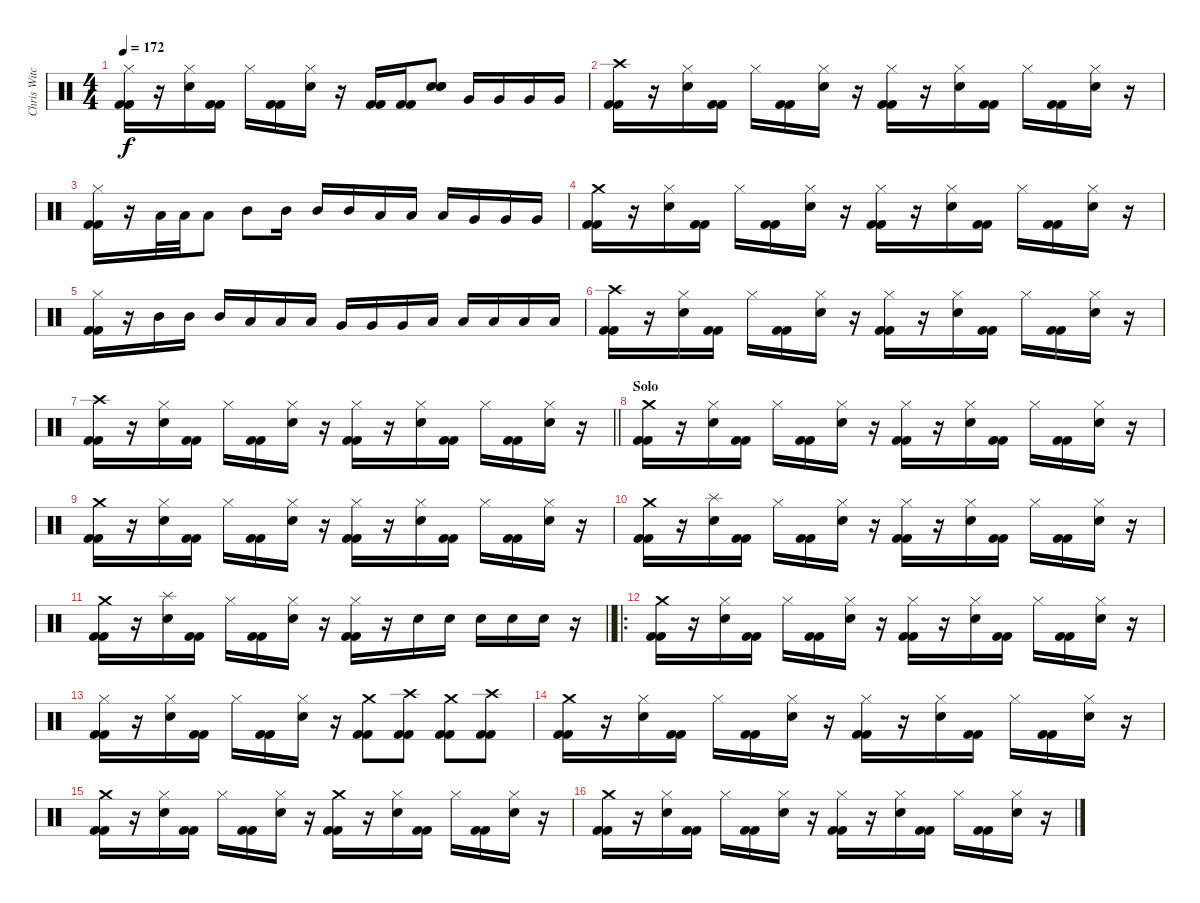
\track ("Chris Witchhunter" "Chris Witc") {instrument percussion}
\staff {score}
\articulation defaults
\ts (4 4)
\tempo 172
\clef neutral
\ks c
("Kick (hit) 2" "Kick (hit) 2" "Hi-Hat (closed)").16{dy f} r.16 ("Snare (hit) 2" "Hi-Hat (closed)").16 ("Kick (hit) 2" "Kick (hit) 2").16 "Hi-Hat (closed)".16 ("Kick (hit) 2" "Kick (hit) 2").16 ("Snare (hit) 2" "Hi-Hat (closed)").16 r.16 ("Kick (hit) 2" "Kick (hit) 2").16 ("Kick (hit) 2" "Kick (hit) 2").16 ("Snare (hit) 2" "Snare (hit) 2" "Snare (hit) 2").8 "Very Low Tom (hit)".16 "Very Low Tom (hit)".16 "Very Low Tom (hit)".16 "Very Low Tom (hit)".16 |
("Kick (hit) 2" "Kick (hit) 2" "Crash high (hit)").16 r.16 ("Snare (hit) 2" "Hi-Hat (closed)").16 ("Kick (hit) 2" "Kick (hit) 2").16 "Hi-Hat (closed)".16 ("Kick (hit) 2" "Kick (hit) 2").16 ("Snare (hit) 2" "Hi-Hat (closed)").16 r.16 ("Kick (hit) 2" "Kick (hit) 2" "Hi-Hat (closed)").16 r.16 ("Snare (hit) 2" "Hi-Hat (closed)").16 ("Kick (hit) 2" "Kick (hit) 2").16 "Hi-Hat (closed)".16 ("Kick (hit) 2" "Kick (hit) 2").16 ("Snare (hit) 2" "Hi-Hat (closed)").16 r.16 |
("Kick (hit) 2" "Kick (hit) 2" "Hi-Hat (closed)").16 r.16 "Low Tom (hit)".32 "Low Tom (hit)".32 "Low Tom (hit)".8 "Mid Tom (hit)".8 "Mid Tom (hit)".16 "Mid Tom (hit)".16 "Mid Tom (hit)".16 "Low Tom (hit)".16 "Low Tom (hit)".16 "Low Tom (hit)".16 "Very Low Tom (hit)".16 "Very Low Tom (hit)".16 "Very Low Tom (hit)".16 |
("Kick (hit) 2" "Kick (hit) 2" "Crash medium (hit)").16 r.16 ("Snare (hit) 2" "Hi-Hat (closed)").16 ("Kick (hit) 2" "Kick (hit) 2").16 "Hi-Hat (closed)".16 ("Kick (hit) 2" "Kick (hit) 2").16 ("Snare (hit) 2" "Hi-Hat (closed)").16 r.16 ("Kick (hit) 2" "Kick (hit) 2" "Hi-Hat (closed)").16 r.16 ("Snare (hit) 2" "Hi-Hat (closed)").16 ("Kick (hit) 2" "Kick (hit) 2").16 "Hi-Hat (closed)".16 ("Kick (hit) 2" "Kick (hit) 2").16 ("Snare (hit) 2" "Hi-Hat (closed)").16 r.16 |
("Kick (hit) 2" "Kick (hit) 2" "Hi-Hat (closed)").16 r.16 "Mid Tom (hit)".16 "Mid Tom (hit)".16 "Mid Tom (hit)".16 "Low Tom (hit)".16 "Low Tom (hit)".16 "Low Tom (hit)".16 "Very Low Tom (hit)".16 "Very Low Tom (hit)".16 "Very Low Tom (hit)".16 "Low Floor Tom (hit)".16 "Low Floor Tom (hit)".16 "Low Floor Tom (hit)".16 "Low Floor Tom (hit)".16 "Low Floor Tom (hit)".16 |
("Kick (hit) 2" "Kick (hit) 2" "Crash high (hit)").16 r.16 ("Snare (hit) 2" "Hi-Hat (closed)").16 ("Kick (hit) 2" "Kick (hit) 2").16 "Hi-Hat (closed)".16 ("Kick (hit) 2" "Kick (hit) 2").16 ("Snare (hit) 2" "Hi-Hat (closed)").16 r.16 ("Kick (hit) 2" "Kick (hit) 2" "Hi-Hat (closed)").16 r.16 ("Snare (hit) 2" "Hi-Hat (closed)").16 ("Kick (hit) 2" "Kick (hit) 2").16 "Hi-Hat (closed)".16 ("Kick (hit) 2" "Kick (hit) 2").16 ("Snare (hit) 2" "Hi-Hat (closed)").16 r.16 |
\barLineRight lightlight
("Kick (hit) 2" "Kick (hit) 2" "Crash high (hit)").16 r.16 ("Snare (hit) 2" "Hi-Hat (closed)").16 ("Kick (hit) 2" "Kick (hit) 2").16 "Hi-Hat (closed)".16 ("Kick (hit) 2" "Kick (hit) 2").16 ("Snare (hit) 2" "Hi-Hat (closed)").16 r.16 ("Kick (hit) 2" "Kick (hit) 2" "Hi-Hat (closed)").16 r.16 ("Snare (hit) 2" "Hi-Hat (closed)").16 ("Kick (hit) 2" "Kick (hit) 2").16 "Hi-Hat (closed)".16 ("Kick (hit) 2" "Kick (hit) 2").16 ("Snare (hit) 2" "Hi-Hat (closed)").16 r.16 |
\section ("" "Solo")
("Kick (hit) 2" "Kick (hit) 2" "Crash medium (hit)").16 r.16 ("Snare (hit) 2" "Hi-Hat (closed)").16 ("Kick (hit) 2" "Kick (hit) 2").16 "Hi-Hat (closed)".16 ("Kick (hit) 2" "Kick (hit) 2").16 ("Snare (hit) 2" "Hi-Hat (closed)").16 r.16 ("Kick (hit) 2" "Kick (hit) 2" "Hi-Hat (closed)").16 r.16 ("Snare (hit) 2" "Hi-Hat (closed)").16 ("Kick (hit) 2" "Kick (hit) 2").16 "Hi-Hat (closed)".16 ("Kick (hit) 2" "Kick (hit) 2").16 ("Snare (hit) 2" "Hi-Hat (closed)").16 r.16 |
("Kick (hit) 2" "Kick (hit) 2" "Crash medium (hit)").16 r.16 ("Snare (hit) 2" "Hi-Hat (closed)").16 ("Kick (hit) 2" "Kick (hit) 2").16 "Hi-Hat (closed)".16 ("Kick (hit) 2" "Kick (hit) 2").16 ("Snare (hit) 2" "Hi-Hat (closed)").16 r.16 ("Kick (hit) 2" "Kick (hit) 2" "Hi-Hat (closed)").16 r.16 ("Snare (hit) 2" "Hi-Hat (closed)").16 ("Kick (hit) 2" "Kick (hit) 2").16 "Hi-Hat (closed)".16 ("Kick (hit) 2" "Kick (hit) 2").16 ("Snare (hit) 2" "Hi-Hat (closed)").16 r.16 |
("Kick (hit) 2" "Kick (hit) 2" "Crash medium (hit)").16 r.16 ("Snare (hit) 2" "Splash (hit)").16 ("Kick (hit) 2" "Kick (hit) 2").16 "Hi-Hat (closed)".16 ("Kick (hit) 2" "Kick (hit) 2").16 ("Snare (hit) 2" "Hi-Hat (closed)").16 r.16 ("Kick (hit) 2" "Kick (hit) 2" "Hi-Hat (closed)").16 r.16 ("Snare (hit) 2" "Hi-Hat (closed)").16 ("Kick (hit) 2" "Kick (hit) 2").16 "Hi-Hat (closed)".16 ("Kick (hit) 2" "Kick (hit) 2").16 ("Snare (hit) 2" "Hi-Hat (closed)").16 r.16 |
\barLineRight lightlight
("Kick (hit) 2" "Kick (hit) 2" "Crash medium (hit)").16 r.16 ("Snare (hit) 2" "Splash (hit)").16 ("Kick (hit) 2" "Kick (hit) 2").16 "Hi-Hat (closed)".16 ("Kick (hit) 2" "Kick (hit) 2").16 ("Snare (hit) 2" "Hi-Hat (closed)").16 r.16 ("Kick (hit) 2" "Kick (hit) 2" "Hi-Hat (closed)").16 r.16 "Snare (hit) 2".16 "Snare (hit) 2".16 "Snare (hit) 2".16 "Snare (hit) 2".16 "Snare (hit) 2".16 r.16 |
\ro
("Kick (hit) 2" "Kick (hit) 2" "Crash medium (hit)").16 r.16 ("Snare (hit) 2" "Hi-Hat (closed)").16 ("Kick (hit) 2" "Kick (hit) 2").16 "Hi-Hat (closed)".16 ("Kick (hit) 2" "Kick (hit) 2").16 ("Snare (hit) 2" "Hi-Hat (closed)").16 r.16 ("Kick (hit) 2" "Kick (hit) 2" "Hi-Hat (closed)").16 r.16 ("Snare (hit) 2" "Hi-Hat (closed)").16 ("Kick (hit) 2" "Kick (hit) 2").16 "Hi-Hat (closed)".16 ("Kick (hit) 2" "Kick (hit) 2").16 ("Snare (hit) 2" "Hi-Hat (closed)").16 r.16 |
("Kick (hit) 2" "Kick (hit) 2" "Hi-Hat (closed)").16 r.16 ("Snare (hit) 2" "Hi-Hat (closed)").16 ("Kick (hit) 2" "Kick (hit) 2").16 "Hi-Hat (closed)".16 ("Kick (hit) 2" "Kick (hit) 2").16 ("Snare (hit) 2" "Hi-Hat (closed)").16 r.16 ("Kick (hit) 2" "Kick (hit) 2" "Crash medium (hit)").8 ("Kick (hit) 2" "Kick (hit) 2" "Crash high (hit)").8 ("Kick (hit) 2" "Kick (hit) 2" "Crash medium (hit)").8 ("Kick (hit) 2" "Kick (hit) 2" "Crash high (hit)").8 |
("Kick (hit) 2" "Kick (hit) 2" "Crash medium (hit)").16 r.16 ("Snare (hit) 2" "Hi-Hat (closed)").16 ("Kick (hit) 2" "Kick (hit) 2").16 "Hi-Hat (closed)".16 ("Kick (hit) 2" "Kick (hit) 2").16 ("Snare (hit) 2" "Hi-Hat (closed)").16 r.16 ("Kick (hit) 2" "Kick (hit) 2" "Hi-Hat (closed)").16 r.16 ("Snare (hit) 2" "Hi-Hat (closed)").16 ("Kick (hit) 2" "Kick (hit) 2").16 "Hi-Hat (closed)".16 ("Kick (hit) 2" "Kick (hit) 2").16 ("Snare (hit) 2" "Hi-Hat (closed)").16 r.16 |
("Kick (hit) 2" "Kick (hit) 2" "Crash medium (hit)").16 r.16 ("Snare (hit) 2" "Hi-Hat (closed)").16 ("Kick (hit) 2" "Kick (hit) 2").16 "Hi-Hat (closed)".16 ("Kick (hit) 2" "Kick (hit) 2").16 ("Snare (hit) 2" "Hi-Hat (closed)").16 r.16 ("Kick (hit) 2" "Kick (hit) 2" "Crash medium (hit)").16 r.16 ("Snare (hit) 2" "Hi-Hat (closed)").16 ("Kick (hit) 2" "Kick (hit) 2").16 "Hi-Hat (closed)".16 ("Kick (hit) 2" "Kick (hit) 2").16 ("Snare (hit) 2" "Hi-Hat (closed)").16 r.16 |
("Kick (hit) 2" "Kick (hit) 2" "Crash medium (hit)").16 r.16 ("Snare (hit) 2" "Hi-Hat (closed)").16 ("Kick (hit) 2" "Kick (hit) 2").16 "Hi-Hat (closed)".16 ("Kick (hit) 2" "Kick (hit) 2").16 ("Snare (hit) 2" "Hi-Hat (closed)").16 r.16 ("Kick (hit) 2" "Kick (hit) 2" "Hi-Hat (closed)").16 r.16 ("Snare (hit) 2" "Hi-Hat (closed)").16 ("Kick (hit) 2" "Kick (hit) 2").16 "Hi-Hat (closed)".16 ("Kick (hit) 2" "Kick (hit) 2").16 ("Snare (hit) 2" "Hi-Hat (closed)").16 r.16
